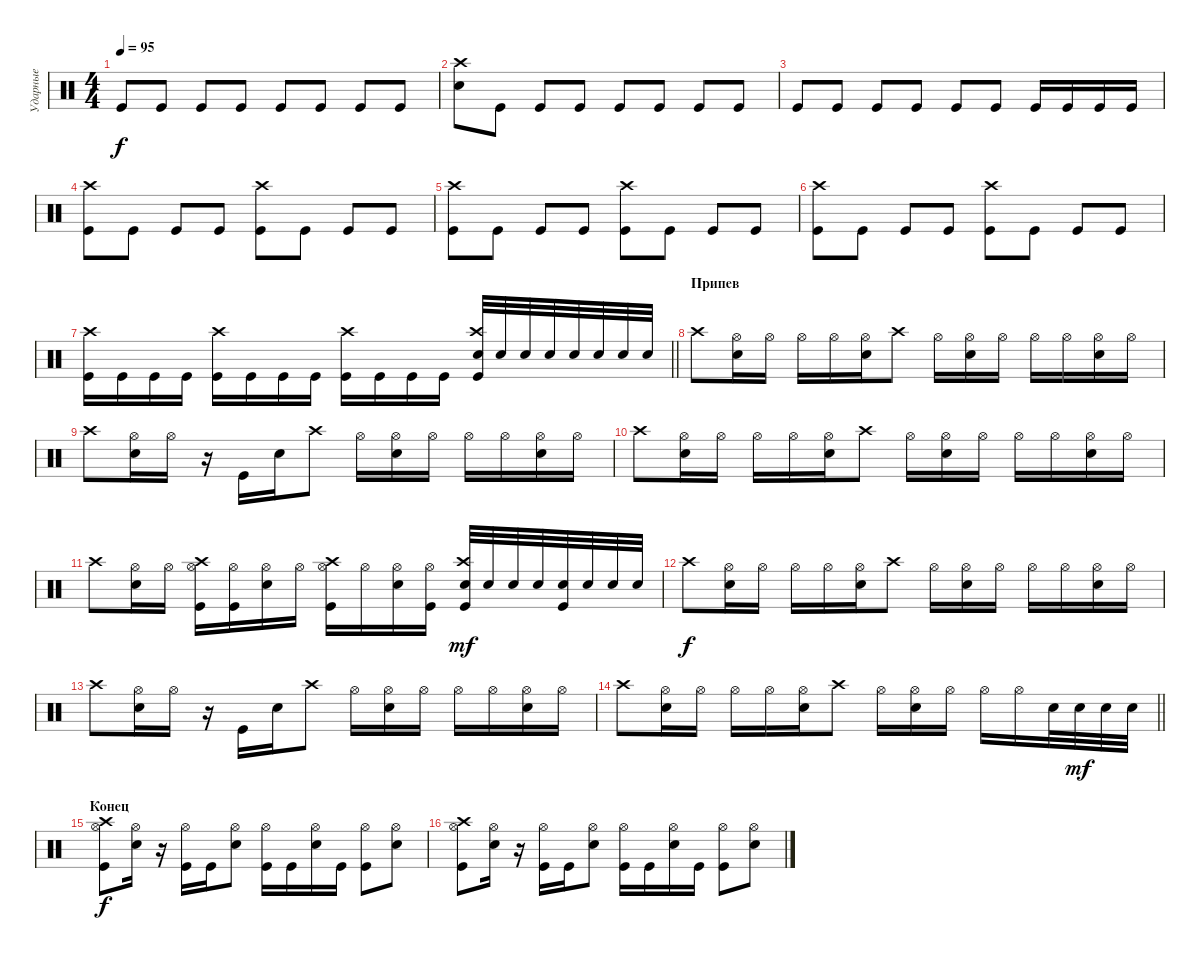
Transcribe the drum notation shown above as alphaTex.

\track ("Ударные" "Ударные") {instrument percussion}
\staff {score}
\articulation defaults
\ts (4 4)
\tempo 95
\clef neutral
\ks c "Kick (hit)".8{dy f} "Kick (hit)".8 "Kick (hit)".8 "Kick (hit)".8 "Kick (hit)".8 "Kick (hit)".8 "Kick (hit)".8 "Kick (hit)".8
|
("Crash high (hit)" "Snare (hit) 2").8 "Kick (hit)".8 "Kick (hit)".8 "Kick (hit)".8 "Kick (hit)".8 "Kick (hit)".8 "Kick (hit)".8 "Kick (hit)".8 |
"Kick (hit)".8 "Kick (hit)".8 "Kick (hit)".8 "Kick (hit)".8 "Kick (hit)".8 "Kick (hit)".8 "Kick (hit)".16 "Kick (hit)".16 "Kick (hit)".16 "Kick (hit)".16 |
("Crash high (hit)" "Kick (hit)").8 "Kick (hit)".8 "Kick (hit)".8 "Kick (hit)".8 ("Crash high (hit)" "Kick (hit)").8 "Kick (hit)".8 "Kick (hit)".8 "Kick (hit)".8 |
("Crash high (hit)" "Kick (hit)").8 "Kick (hit)".8 "Kick (hit)".8 "Kick (hit)".8 ("Crash high (hit)" "Kick (hit)").8 "Kick (hit)".8 "Kick (hit)".8 "Kick (hit)".8 |
("Crash high (hit)" "Kick (hit)").8 "Kick (hit)".8 "Kick (hit)".8 "Kick (hit)".8 ("Crash high (hit)" "Kick (hit)").8 "Kick (hit)".8 "Kick (hit)".8 "Kick (hit)".8 |
\barLineRight lightlight
("Crash high (hit)" "Kick (hit)").16 "Kick (hit)".16 "Kick (hit)".16 "Kick (hit)".16 ("Crash high (hit)" "Kick (hit)").16 "Kick (hit)".16 "Kick (hit)".16 "Kick (hit)".16 ("Crash high (hit)" "Kick (hit)").16 "Kick (hit)".16 "Kick (hit)".16 "Kick (hit)".16 ("Crash high (hit)" "Snare (hit) 2" "Kick (hit)").32 "Snare (hit) 2".32 "Snare (hit) 2".32 "Snare (hit) 2".32 "Snare (hit) 2".32 "Snare (hit) 2".32 "Snare (hit) 2".32 "Snare (hit) 2".32 |
\section ("" "Припев")
"Crash high (hit)".8 ("Hi-Hat (open)" "Snare (hit) 2").16 "Hi-Hat (open)".16 "Hi-Hat (open)".16 "Hi-Hat (open)".16 ("Hi-Hat (open)" "Snare (hit) 2").16 "Crash high (hit)".8 "Hi-Hat (open)".16 ("Hi-Hat (open)" "Snare (hit) 2").16 "Hi-Hat (open)".16 "Hi-Hat (open)".16 "Hi-Hat (open)".16 ("Hi-Hat (open)" "Snare (hit) 2").16 "Hi-Hat (open)".16 |
"Crash high (hit)".8 ("Hi-Hat (open)" "Snare (hit) 2").16 "Hi-Hat (open)".16 r.16 "Kick (hit)".16 "Snare (hit) 2".16 "Crash high (hit)".8 "Hi-Hat (open)".16 ("Hi-Hat (open)" "Snare (hit) 2").16 "Hi-Hat (open)".16 "Hi-Hat (open)".16 "Hi-Hat (open)".16 ("Hi-Hat (open)" "Snare (hit) 2").16 "Hi-Hat (open)".16 |
"Crash high (hit)".8 ("Hi-Hat (open)" "Snare (hit) 2").16 "Hi-Hat (open)".16 "Hi-Hat (open)".16 "Hi-Hat (open)".16 ("Hi-Hat (open)" "Snare (hit) 2").16 "Crash high (hit)".8 "Hi-Hat (open)".16 ("Hi-Hat (open)" "Snare (hit) 2").16 "Hi-Hat (open)".16 "Hi-Hat (open)".16 "Hi-Hat (open)".16 ("Hi-Hat (open)" "Snare (hit) 2").16 "Hi-Hat (open)".16 |
"Crash high (hit)".8 ("Hi-Hat (open)" "Snare (hit) 2").16 "Hi-Hat (open)".16 ("Crash high (hit)" "Hi-Hat (open)" "Kick (hit)").16 ("Hi-Hat (open)" "Kick (hit)").16 ("Hi-Hat (open)" "Snare (hit) 2").16 "Hi-Hat (open)".16 ("Crash high (hit)" "Hi-Hat (open)" "Kick (hit)").16 "Hi-Hat (open)".16 ("Hi-Hat (open)" "Snare (hit) 2").16 ("Hi-Hat (open)" "Kick (hit)").16 ("Crash high (hit)" "Kick (hit)" "Snare (hit) 2").32{dy mf} "Snare (hit) 2".32 "Snare (hit) 2".32 "Snare (hit) 2".32 ("Kick (hit)" "Snare (hit) 2").32 "Snare (hit) 2".32 "Snare (hit) 2".32 "Snare (hit) 2".32 |
"Crash high (hit)".8{dy f} ("Hi-Hat (open)" "Snare (hit) 2").16 "Hi-Hat (open)".16 "Hi-Hat (open)".16 "Hi-Hat (open)".16 ("Hi-Hat (open)" "Snare (hit) 2").16 "Crash high (hit)".8 "Hi-Hat (open)".16 ("Hi-Hat (open)" "Snare (hit) 2").16 "Hi-Hat (open)".16 "Hi-Hat (open)".16 "Hi-Hat (open)".16 ("Hi-Hat (open)" "Snare (hit) 2").16 "Hi-Hat (open)".16 |
"Crash high (hit)".8 ("Hi-Hat (open)" "Snare (hit) 2").16 "Hi-Hat (open)".16 r.16 "Kick (hit)".16 "Snare (hit) 2".16 "Crash high (hit)".8 "Hi-Hat (open)".16 ("Hi-Hat (open)" "Snare (hit) 2").16 "Hi-Hat (open)".16 "Hi-Hat (open)".16 "Hi-Hat (open)".16 ("Hi-Hat (open)" "Snare (hit) 2").16 "Hi-Hat (open)".16 |
\barLineRight lightlight "Crash high (hit)".8
("Hi-Hat (open)" "Snare (hit) 2").16 "Hi-Hat (open)".16 "Hi-Hat (open)".16 "Hi-Hat (open)".16 ("Hi-Hat (open)" "Snare (hit) 2").16 "Crash high (hit)".8 "Hi-Hat (open)".16 ("Hi-Hat (open)" "Snare (hit) 2").16 "Hi-Hat (open)".16 "Hi-Hat (open)".16 "Hi-Hat (open)".16 "Snare (hit) 2".32 "Snare (hit) 2".32{dy mf} "Snare (hit) 2".32 "Snare (hit) 2".32 |
\section ("" "Конец")
("Kick (hit)" "Hi-Hat (open)" "Crash high (hit)").8{dy f} ("Hi-Hat (open)" "Snare (hit) 2").16 r.16 ("Hi-Hat (open)" "Kick (hit)").16 "Kick (hit)".16 ("Hi-Hat (open)" "Snare (hit) 2").8 ("Hi-Hat (open)" "Kick (hit)").16 "Kick (hit)".16 ("Hi-Hat (open)" "Snare (hit) 2").16 "Kick (hit)".16 ("Hi-Hat (open)" "Kick (hit)").8 ("Hi-Hat (open)" "Snare (hit) 2").8 |
("Kick (hit)" "Hi-Hat (open)" "Crash high (hit)").8 ("Hi-Hat (open)" "Snare (hit) 2").16 r.16 ("Hi-Hat (open)" "Kick (hit)").16 "Kick (hit)".16 ("Hi-Hat (open)" "Snare (hit) 2").8 ("Hi-Hat (open)" "Kick (hit)").16 "Kick (hit)".16 ("Hi-Hat (open)" "Snare (hit) 2").16 "Kick (hit)".16 ("Hi-Hat (open)" "Kick (hit)").8 ("Hi-Hat (open)" "Snare (hit) 2").8
